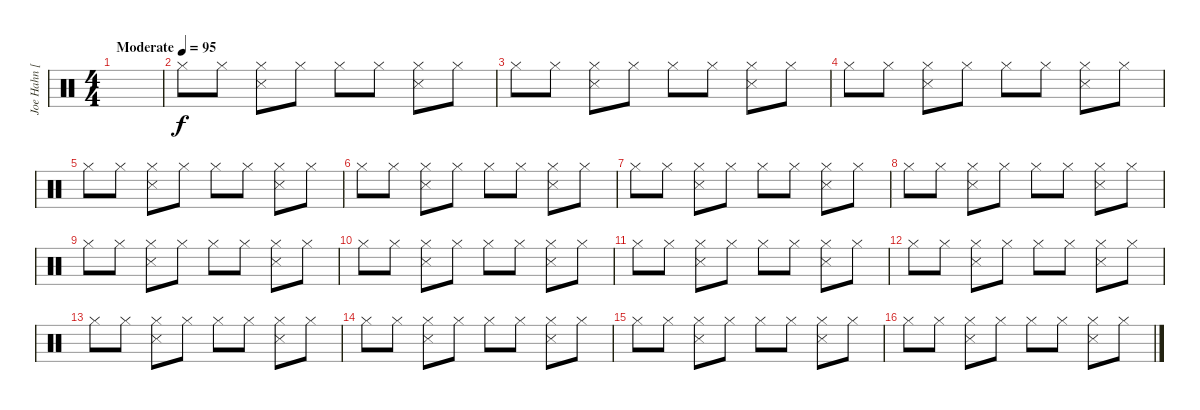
\track ("Joe Hahn [3]" "Joe Hahn [") {instrument percussion}
\staff {score}
\articulation defaults
\ts (4 4)
\tempo (95 "Moderate")
\clef neutral
\ks c
|
"Hi-Hat (closed)".8{volume 9} "Hi-Hat (closed)".8 ("Hi-Hat (closed)" "Snare (side stick) 3").8 "Hi-Hat (closed)".8 "Hi-Hat (closed)".8 "Hi-Hat (closed)".8 ("Hi-Hat (closed)" "Snare (side stick) 3").8 "Hi-Hat (closed)".8 |
"Hi-Hat (closed)".8 "Hi-Hat (closed)".8 ("Hi-Hat (closed)" "Snare (side stick) 3").8 "Hi-Hat (closed)".8 "Hi-Hat (closed)".8 "Hi-Hat (closed)".8 ("Hi-Hat (closed)" "Snare (side stick) 3").8 "Hi-Hat (closed)".8 |
"Hi-Hat (closed)".8 "Hi-Hat (closed)".8 ("Hi-Hat (closed)" "Snare (side stick) 3").8 "Hi-Hat (closed)".8 "Hi-Hat (closed)".8 "Hi-Hat (closed)".8 ("Hi-Hat (closed)" "Snare (side stick) 3").8 "Hi-Hat (closed)".8 |
"Hi-Hat (closed)".8 "Hi-Hat (closed)".8 ("Hi-Hat (closed)" "Snare (side stick) 3").8 "Hi-Hat (closed)".8 "Hi-Hat (closed)".8 "Hi-Hat (closed)".8 ("Hi-Hat (closed)" "Snare (side stick) 3").8 "Hi-Hat (closed)".8 |
"Hi-Hat (closed)".8 "Hi-Hat (closed)".8 ("Hi-Hat (closed)" "Snare (side stick) 3").8 "Hi-Hat (closed)".8 "Hi-Hat (closed)".8 "Hi-Hat (closed)".8 ("Hi-Hat (closed)" "Snare (side stick) 3").8 "Hi-Hat (closed)".8 |
"Hi-Hat (closed)".8 "Hi-Hat (closed)".8 ("Hi-Hat (closed)" "Snare (side stick) 3").8 "Hi-Hat (closed)".8 "Hi-Hat (closed)".8 "Hi-Hat (closed)".8 ("Hi-Hat (closed)" "Snare (side stick) 3").8 "Hi-Hat (closed)".8 |
"Hi-Hat (closed)".8 "Hi-Hat (closed)".8 ("Hi-Hat (closed)" "Snare (side stick) 3").8 "Hi-Hat (closed)".8 "Hi-Hat (closed)".8 "Hi-Hat (closed)".8 ("Hi-Hat (closed)" "Snare (side stick) 3").8 "Hi-Hat (closed)".8 |
"Hi-Hat (closed)".8 "Hi-Hat (closed)".8 ("Hi-Hat (closed)" "Snare (side stick) 3").8 "Hi-Hat (closed)".8 "Hi-Hat (closed)".8 "Hi-Hat (closed)".8 ("Hi-Hat (closed)" "Snare (side stick) 3").8 "Hi-Hat (closed)".8 |
"Hi-Hat (closed)".8 "Hi-Hat (closed)".8 ("Hi-Hat (closed)" "Snare (side stick) 3").8 "Hi-Hat (closed)".8 "Hi-Hat (closed)".8 "Hi-Hat (closed)".8 ("Hi-Hat (closed)" "Snare (side stick) 3").8 "Hi-Hat (closed)".8 |
"Hi-Hat (closed)".8 "Hi-Hat (closed)".8 ("Hi-Hat (closed)" "Snare (side stick) 3").8 "Hi-Hat (closed)".8 "Hi-Hat (closed)".8 "Hi-Hat (closed)".8 ("Hi-Hat (closed)" "Snare (side stick) 3").8 "Hi-Hat (closed)".8 |
"Hi-Hat (closed)".8 "Hi-Hat (closed)".8 ("Hi-Hat (closed)" "Snare (side stick) 3").8 "Hi-Hat (closed)".8 "Hi-Hat (closed)".8 "Hi-Hat (closed)".8 ("Hi-Hat (closed)" "Snare (side stick) 3").8 "Hi-Hat (closed)".8 |
"Hi-Hat (closed)".8 "Hi-Hat (closed)".8 ("Hi-Hat (closed)" "Snare (side stick) 3").8 "Hi-Hat (closed)".8 "Hi-Hat (closed)".8 "Hi-Hat (closed)".8 ("Hi-Hat (closed)" "Snare (side stick) 3").8 "Hi-Hat (closed)".8 |
"Hi-Hat (closed)".8 "Hi-Hat (closed)".8 ("Hi-Hat (closed)" "Snare (side stick) 3").8 "Hi-Hat (closed)".8 "Hi-Hat (closed)".8 "Hi-Hat (closed)".8 ("Hi-Hat (closed)" "Snare (side stick) 3").8 "Hi-Hat (closed)".8 |
"Hi-Hat (closed)".8 "Hi-Hat (closed)".8 ("Hi-Hat (closed)" "Snare (side stick) 3").8 "Hi-Hat (closed)".8 "Hi-Hat (closed)".8 "Hi-Hat (closed)".8 ("Hi-Hat (closed)" "Snare (side stick) 3").8 "Hi-Hat (closed)".8 |
"Hi-Hat (closed)".8 "Hi-Hat (closed)".8 ("Hi-Hat (closed)" "Snare (side stick) 3").8 "Hi-Hat (closed)".8 "Hi-Hat (closed)".8 "Hi-Hat (closed)".8 ("Hi-Hat (closed)" "Snare (side stick) 3").8 "Hi-Hat (closed)".8
